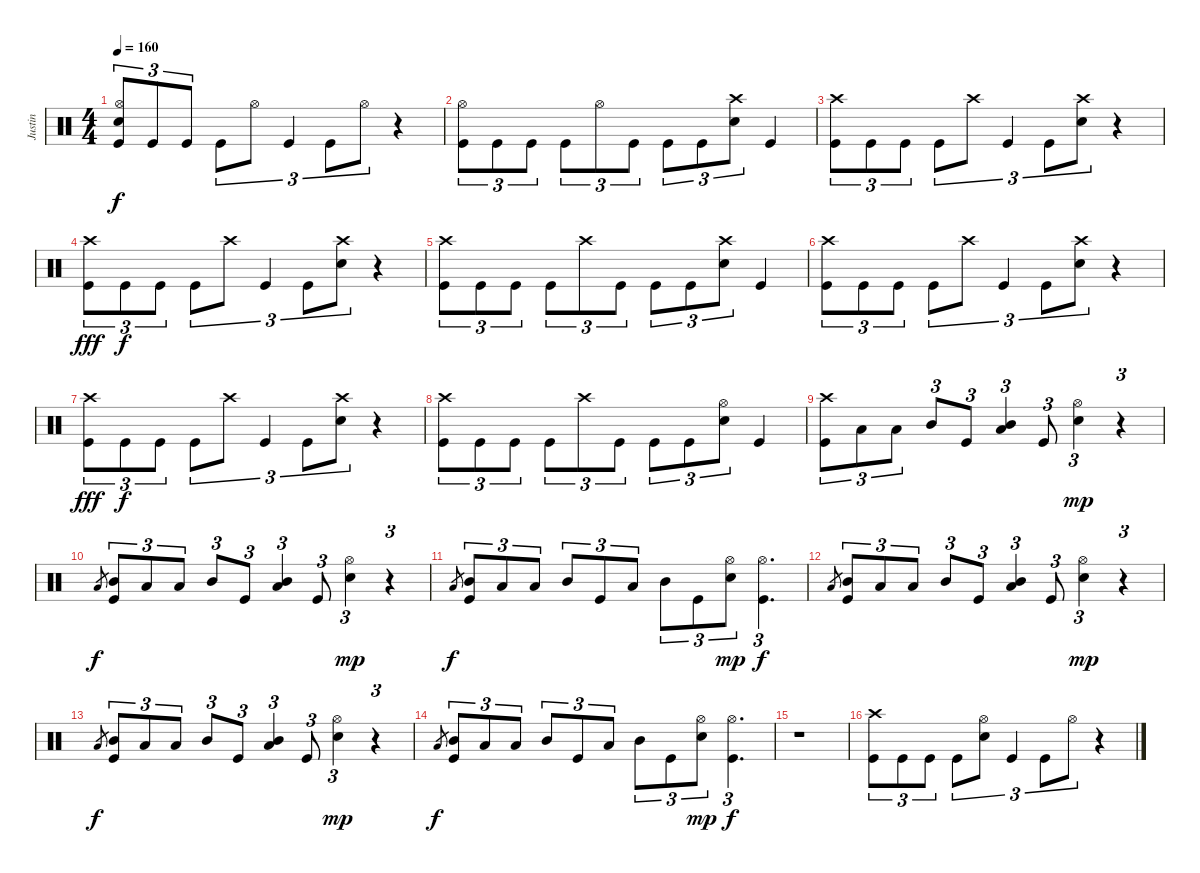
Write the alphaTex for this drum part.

\track ("Justin" "Justin") {instrument percussion}
\staff {score}
\articulation defaults
\ts (4 4)
\tempo 160
\clef neutral
\ks c
("Electric Snare (hit)" "Hi-Hat (open)" "Kick (hit)").8{tu (3 2) dy f} "Kick (hit)".8{tu (3 2)} "Kick (hit)".8{tu (3 2)} "Kick (hit)".8{tu (3 2)} "Hi-Hat (open)".8{tu (3 2)} "Kick (hit)".4{tu (3 2)} "Kick (hit)".8{tu (3 2)} "Hi-Hat (open)".8{tu (3 2)} r.4 |
("Hi-Hat (open)" "Kick (hit)").8{tu (3 2)} "Kick (hit)".8{tu (3 2)} "Kick (hit)".8{tu (3 2)} "Kick (hit)".8{tu (3 2)} "Hi-Hat (open)".8{tu (3 2)} "Kick (hit)".8{tu (3 2)} "Kick (hit)".8{tu (3 2)} "Kick (hit)".8{tu (3 2)} ("Electric Snare (hit)" "Crash high (hit)").8{tu (3 2)} "Kick (hit)".4 |
("Crash high (hit)" "Kick (hit)").8{tu (3 2)} "Kick (hit)".8{tu (3 2)} "Kick (hit)".8{tu (3 2)} "Kick (hit)".8{tu (3 2)} "Crash high (hit)".8{tu (3 2)} "Kick (hit)".4{tu (3 2)} "Kick (hit)".8{tu (3 2)} ("Electric Snare (hit)" "Crash high (hit)").8{tu (3 2)} r.4 |
("Crash high (hit)" "Kick (hit)").8{tu (3 2) dy fff} "Kick (hit)".8{tu (3 2) dy f} "Kick (hit)".8{tu (3 2)} "Kick (hit)".8{tu (3 2)} "Crash high (hit)".8{tu (3 2)} "Kick (hit)".4{tu (3 2)} "Kick (hit)".8{tu (3 2)} ("Electric Snare (hit)" "Crash high (hit)").8{tu (3 2)} r.4 |
("Crash high (hit)" "Kick (hit)").8{tu (3 2)} "Kick (hit)".8{tu (3 2)} "Kick (hit)".8{tu (3 2)} "Kick (hit)".8{tu (3 2)} "Crash high (hit)".8{tu (3 2)} "Kick (hit)".8{tu (3 2)} "Kick (hit)".8{tu (3 2)} "Kick (hit)".8{tu (3 2)} ("Electric Snare (hit)" "Crash high (hit)").8{tu (3 2)} "Kick (hit)".4 |
("Crash high (hit)" "Kick (hit)").8{tu (3 2)} "Kick (hit)".8{tu (3 2)} "Kick (hit)".8{tu (3 2)} "Kick (hit)".8{tu (3 2)} "Crash high (hit)".8{tu (3 2)} "Kick (hit)".4{tu (3 2)} "Kick (hit)".8{tu (3 2)} ("Electric Snare (hit)" "Crash high (hit)").8{tu (3 2)} r.4 |
("Crash high (hit)" "Kick (hit)").8{tu (3 2) dy fff} "Kick (hit)".8{tu (3 2) dy f} "Kick (hit)".8{tu (3 2)} "Kick (hit)".8{tu (3 2)} "Crash high (hit)".8{tu (3 2)} "Kick (hit)".4{tu (3 2)} "Kick (hit)".8{tu (3 2)} ("Electric Snare (hit)" "Crash high (hit)").8{tu (3 2)} r.4 |
("Crash high (hit)" "Kick (hit)").8{tu (3 2)} "Kick (hit)".8{tu (3 2)} "Kick (hit)".8{tu (3 2)} "Kick (hit)".8{tu (3 2)} "Crash high (hit)".8{tu (3 2)} "Kick (hit)".8{tu (3 2)} "Kick (hit)".8{tu (3 2)} "Kick (hit)".8{tu (3 2)} ("Electric Snare (hit)" "Hi-Hat (open)").8{tu (3 2)} "Kick (hit)".4 |
("Crash high (hit)" "Kick (hit)").8{tu (3 2)} "Low Tom (hit)".8{tu (3 2)} "Low Floor Tom (hit)".8{tu (3 2)} "Mid Tom (hit)".8{tu (3 2)} "Kick (hit)".8{tu (3 2)} ("Mid Tom (hit)" "Low Floor Tom (hit)").4{tu (3 2)} "Kick (hit)".8{tu (3 2)} ("Hi-Hat (open)" "Electric Snare (hit)").4{tu (3 2) dy mp} r.4{tu (3 2)} |
"Low Tom (hit)".8{gr dy f} ("Kick (hit)" "Mid Tom (hit)").8{tu (3 2)} "Low Tom (hit)".8{tu (3 2)} "Low Floor Tom (hit)".8{tu (3 2)} "Mid Tom (hit)".8{tu (3 2)} "Kick (hit)".8{tu (3 2)} ("Mid Tom (hit)" "Low Floor Tom (hit)").4{tu (3 2)} "Kick (hit)".8{tu (3 2)} ("Hi-Hat (open)" "Electric Snare (hit)").4{tu (3 2) dy mp} r.4{tu (3 2)} |
"Low Tom (hit)".8{gr dy f} ("Mid Tom (hit)" "Kick (hit)").8{tu (3 2)} "Low Tom (hit)".8{tu (3 2)} "Low Floor Tom (hit)".8{tu (3 2)} "Mid Tom (hit)".8{tu (3 2)} "Kick (hit)".8{tu (3 2)} "Low Tom (hit)".8{tu (3 2)} "Mid Tom (hit)".8{tu (3 2)} "Kick (hit)".8{tu (3 2)} ("Hi-Hat (open)" "Electric Snare (hit)").8{tu (3 2) dy mp} ("Hi-Hat (open)" "Kick (hit)").4{d tu (3 2) dy f} |
"Low Tom (hit)".8{gr} ("Kick (hit)" "Mid Tom (hit)").8{tu (3 2)} "Low Tom (hit)".8{tu (3 2)} "Low Floor Tom (hit)".8{tu (3 2)} "Mid Tom (hit)".8{tu (3 2)} "Kick (hit)".8{tu (3 2)} ("Mid Tom (hit)" "Low Floor Tom (hit)").4{tu (3 2)} "Kick (hit)".8{tu (3 2)} ("Hi-Hat (open)" "Electric Snare (hit)").4{tu (3 2) dy mp} r.4{tu (3 2)} |
"Low Tom (hit)".8{gr dy f} ("Kick (hit)" "Mid Tom (hit)").8{tu (3 2)} "Low Tom (hit)".8{tu (3 2)} "Low Floor Tom (hit)".8{tu (3 2)} "Mid Tom (hit)".8{tu (3 2)} "Kick (hit)".8{tu (3 2)} ("Mid Tom (hit)" "Low Floor Tom (hit)").4{tu (3 2)} "Kick (hit)".8{tu (3 2)} ("Hi-Hat (open)" "Electric Snare (hit)").4{tu (3 2) dy mp} r.4{tu (3 2)} |
"Low Tom (hit)".8{gr dy f} ("Mid Tom (hit)" "Kick (hit)").8{tu (3 2)} "Low Tom (hit)".8{tu (3 2)} "Low Floor Tom (hit)".8{tu (3 2)} "Mid Tom (hit)".8{tu (3 2)} "Kick (hit)".8{tu (3 2)} "Low Tom (hit)".8{tu (3 2)} "Mid Tom (hit)".8{tu (3 2)} "Kick (hit)".8{tu (3 2)} ("Hi-Hat (open)" "Electric Snare (hit)").8{tu (3 2) dy mp} ("Hi-Hat (open)" "Kick (hit)").4{d tu (3 2) dy f} |
r.1 |
("Crash high (hit)" "Kick (hit)").8{tu (3 2)} "Kick (hit)".8{tu (3 2)} "Kick (hit)".8{tu (3 2)} "Kick (hit)".8{tu (3 2)} ("Electric Snare (hit)" "Hi-Hat (open)").8{tu (3 2)} "Kick (hit)".4{tu (3 2)} "Kick (hit)".8{tu (3 2)} "Hi-Hat (open)".8{tu (3 2)} r.4
